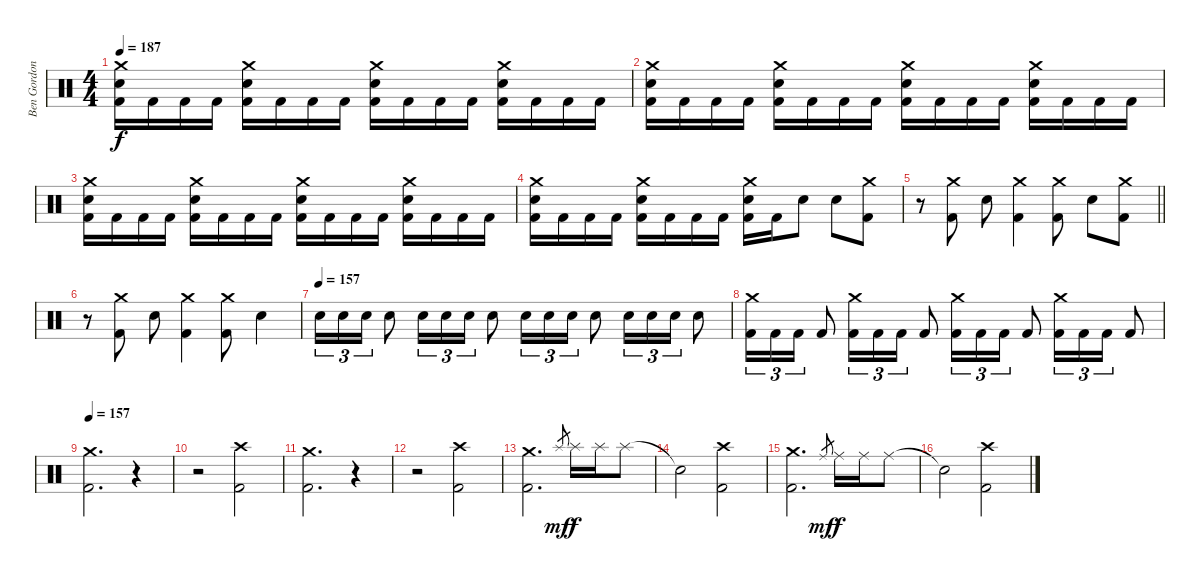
\track ("Ben Gordon" "Ben Gordon") {instrument percussion}
\staff {score}
\articulation defaults
\ts (4 4)
\tempo 187
\clef neutral
\ks c
("Crash medium (hit)" "Electric Snare (hit)" "Kick (hit) 2").16{dy f} "Kick (hit) 2".16 "Kick (hit) 2".16 "Kick (hit) 2".16 ("Crash medium (hit)" "Electric Snare (hit)" "Kick (hit) 2").16 "Kick (hit) 2".16 "Kick (hit) 2".16 "Kick (hit) 2".16 ("Crash medium (hit)" "Electric Snare (hit)" "Kick (hit) 2").16 "Kick (hit) 2".16 "Kick (hit) 2".16 "Kick (hit) 2".16 ("Crash medium (hit)" "Electric Snare (hit)" "Kick (hit) 2").16 "Kick (hit) 2".16 "Kick (hit) 2".16 "Kick (hit) 2".16 |
("Crash medium (hit)" "Electric Snare (hit)" "Kick (hit) 2").16 "Kick (hit) 2".16 "Kick (hit) 2".16 "Kick (hit) 2".16 ("Crash medium (hit)" "Electric Snare (hit)" "Kick (hit) 2").16 "Kick (hit) 2".16 "Kick (hit) 2".16 "Kick (hit) 2".16 ("Crash medium (hit)" "Electric Snare (hit)" "Kick (hit) 2").16 "Kick (hit) 2".16 "Kick (hit) 2".16 "Kick (hit) 2".16 ("Crash medium (hit)" "Electric Snare (hit)" "Kick (hit) 2").16 "Kick (hit) 2".16 "Kick (hit) 2".16 "Kick (hit) 2".16 |
("Crash medium (hit)" "Electric Snare (hit)" "Kick (hit) 2").16 "Kick (hit) 2".16 "Kick (hit) 2".16 "Kick (hit) 2".16 ("Crash medium (hit)" "Electric Snare (hit)" "Kick (hit) 2").16 "Kick (hit) 2".16 "Kick (hit) 2".16 "Kick (hit) 2".16 ("Crash medium (hit)" "Electric Snare (hit)" "Kick (hit) 2").16 "Kick (hit) 2".16 "Kick (hit) 2".16 "Kick (hit) 2".16 ("Crash medium (hit)" "Electric Snare (hit)" "Kick (hit) 2").16 "Kick (hit) 2".16 "Kick (hit) 2".16 "Kick (hit) 2".16 |
("Crash medium (hit)" "Electric Snare (hit)" "Kick (hit) 2").16 "Kick (hit) 2".16 "Kick (hit) 2".16 "Kick (hit) 2".16 ("Crash medium (hit)" "Electric Snare (hit)" "Kick (hit) 2").16 "Kick (hit) 2".16 "Kick (hit) 2".16 "Kick (hit) 2".16 ("Crash medium (hit)" "Electric Snare (hit)" "Kick (hit) 2").16 "Kick (hit) 2".16 "Electric Snare (hit)".8 "Electric Snare (hit)".8 ("Crash medium (hit)" "Kick (hit) 2").8 |
\barLineRight lightlight
r.8 ("Crash medium (hit)" "Kick (hit) 2").8 "Electric Snare (hit)".8 ("Crash medium (hit)" "Kick (hit) 2").4 ("Crash medium (hit)" "Kick (hit) 2").8 "Electric Snare (hit)".8 ("Crash medium (hit)" "Kick (hit) 2").8 |
r.8 ("Crash medium (hit)" "Kick (hit) 2").8 "Electric Snare (hit)".8 ("Crash medium (hit)" "Kick (hit) 2").4 ("Crash medium (hit)" "Kick (hit) 2").8 "Electric Snare (hit)".4 |
\tempo (157)
"Electric Snare (hit)".16{tu (3 2)} "Electric Snare (hit)".16{tu (3 2)} "Electric Snare (hit)".16{tu (3 2)} "Electric Snare (hit)".8 "Electric Snare (hit)".16{tu (3 2)} "Electric Snare (hit)".16{tu (3 2)} "Electric Snare (hit)".16{tu (3 2)} "Electric Snare (hit)".8 "Electric Snare (hit)".16{tu (3 2)} "Electric Snare (hit)".16{tu (3 2)} "Electric Snare (hit)".16{tu (3 2)} "Electric Snare (hit)".8 "Electric Snare (hit)".16{tu (3 2)} "Electric Snare (hit)".16{tu (3 2)} "Electric Snare (hit)".16{tu (3 2)} "Electric Snare (hit)".8 |
("Crash medium (hit)" "Kick (hit) 2").16{tu (3 2)} "Kick (hit) 2".16{tu (3 2)} "Kick (hit) 2".16{tu (3 2)} "Kick (hit) 2".8 ("Crash medium (hit)" "Kick (hit) 2").16{tu (3 2)} "Kick (hit) 2".16{tu (3 2)} "Kick (hit) 2".16{tu (3 2)} "Kick (hit) 2".8 ("Crash medium (hit)" "Kick (hit) 2").16{tu (3 2)} "Kick (hit) 2".16{tu (3 2)} "Kick (hit) 2".16{tu (3 2)} "Kick (hit) 2".8 ("Crash medium (hit)" "Kick (hit) 2").16{tu (3 2)} "Kick (hit) 2".16{tu (3 2)} "Kick (hit) 2".16{tu (3 2)} "Kick (hit) 2".8 |
\tempo 157
("Crash medium (hit)" "Kick (hit) 2").2{d} r.4 |
r.2 ("Crash high (hit)" "Kick (hit) 2").2 |
("Crash medium (hit)" "Kick (hit) 2").2{d} r.4 |
r.2 ("Crash high (hit)" "Kick (hit) 2").2 |
("Crash medium (hit)" "Kick (hit) 2").2{d} "Splash (hit)".8{gr dy mf} "Splash (hit)".16{dy f} "Splash (hit)".16 "Splash (hit)".8 |
"Snare (hit)"{t}.2 ("Crash high (hit)" "Kick (hit) 2").2 |
("Crash medium (hit)" "Kick (hit) 2").2{d} "Ride (middle)".8{gr dy mf} "Ride (middle)".16{dy f} "Ride (middle)".16 "Ride (middle)".8 |
"Snare (hit)"{t}.2 ("Crash high (hit)" "Kick (hit) 2").2
